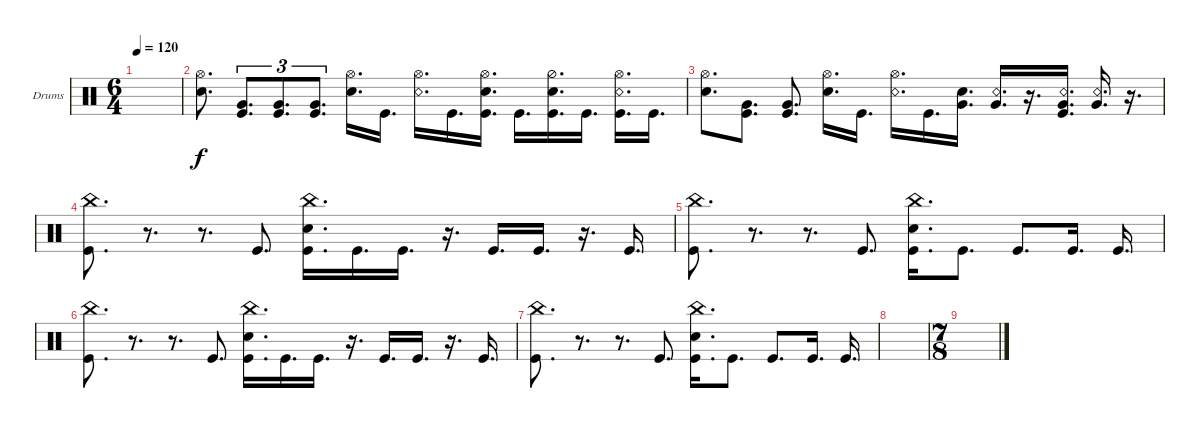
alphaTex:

\defaultSystemsLayout 4
\bracketExtendMode groupsimilarinstruments
\firstSystemTrackNameOrientation horizontal
\otherSystemsTrackNameOrientation horizontal
\track ("Drumkit" "Drums") {instrument percussion}
\staff {score}
\articulation defaults
\ts (6 4)
\tempo 120
\clef neutral
\ks c
|
("Snare (hit) 2" "Hi-Hat (open)").8{d} ("Kick (hit)" "Very Low Tom (hit)").8{d tu (3 2)} ("Kick (hit)" "Very Low Tom (hit)").8{d tu (3 2)} ("Kick (hit)" "Very Low Tom (hit)").8{d tu (3 2)} ("Snare (hit) 2" "Hi-Hat (open)").16{d} "Kick (hit)".16{d} ("Snare (rim shot)" "Hi-Hat (open)").16{d} "Kick (hit)".16{d} ("Kick (hit)" "Hi-Hat (open)" "Snare (hit) 2").16{d} "Kick (hit)".16{d} ("Kick (hit)" "Snare (hit) 2" "Hi-Hat (half)").16{d} "Kick (hit)".16{d} ("Kick (hit)" "Snare (rim shot)" "Hi-Hat (open)").16{d} "Kick (hit)".16{d} |
("Snare (hit) 2" "Hi-Hat (open)").8{d} ("Kick (hit)" "Very Low Tom (hit)").8{d} ("Kick (hit)" "Very Low Tom (hit)").8{d} ("Snare (hit) 2" "Hi-Hat (open)").16{d} "Kick (hit)".16{d} ("Snare (rim shot)" "Hi-Hat (open)").16{d} "Kick (hit)".16{d} ("Snare (hit) 2" "Very Low Tom (hit)").16{d} ("Snare (rim shot)" "Very Low Tom (hit)").16{d} r.16{d} ("Kick (hit)" "Very Low Tom (hit)" "Snare (rim shot)").16{d} ("Snare (rim shot)" "Very Low Tom (hit)").16{d} r.16{d} |
("Kick (hit)" "China (hit)").8{d} r.8{d} r.8{d} "Kick (hit)".8{d} ("Kick (hit)" "China (hit)" "Snare (hit) 2").16{d} "Kick (hit)".16{d} "Kick (hit)".16{d} r.16{d} "Kick (hit)".16{d} "Kick (hit)".16{d} r.16{d} "Kick (hit)".16{d} |
("Kick (hit)" "China (hit)").8{d} r.8{d} r.8{d} "Kick (hit)".8{d} ("Kick (hit)" "China (hit)" "Snare (hit) 2").16{d} "Kick (hit)".8{d} "Kick (hit)".8{d} "Kick (hit)".16{d} "Kick (hit)".16{d} |
("Kick (hit)" "China (hit)").8{d} r.8{d} r.8{d} "Kick (hit)".8{d} ("Kick (hit)" "China (hit)" "Snare (hit) 2").16{d} "Kick (hit)".16{d} "Kick (hit)".16{d} r.16{d} "Kick (hit)".16{d} "Kick (hit)".16{d} r.16{d} "Kick (hit)".16{d} |
("Kick (hit)" "China (hit)").8{d} r.8{d} r.8{d} "Kick (hit)".8{d} ("Kick (hit)" "China (hit)" "Snare (hit) 2").16{d} "Kick (hit)".8{d} "Kick (hit)".8{d} "Kick (hit)".16{d} "Kick (hit)".16{d} |
|
\ts (7 8)
